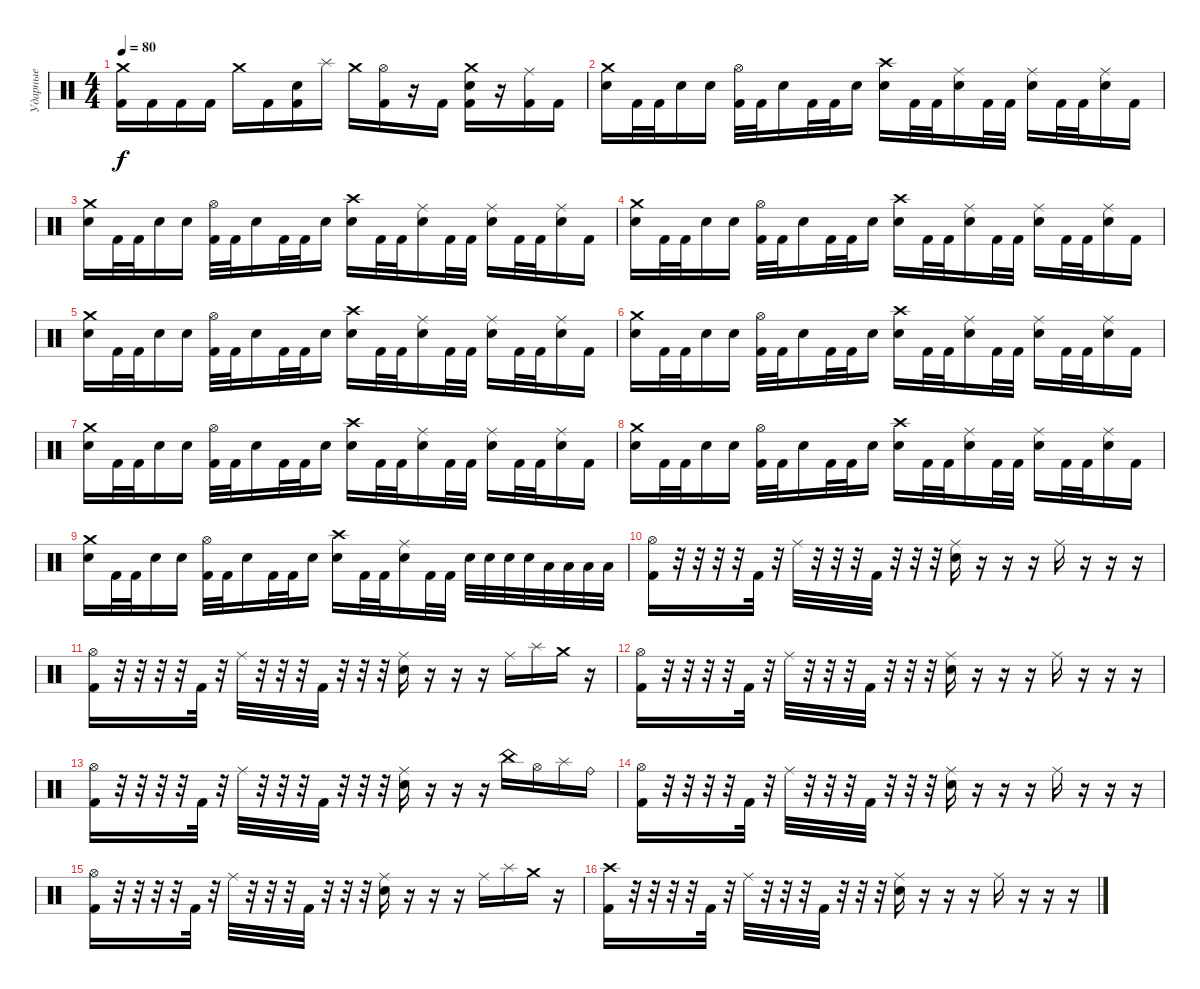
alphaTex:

\track ("Ударные" "Ударные") {instrument percussion}
\staff {score}
\articulation defaults
\ts (4 4)
\tempo 80
\clef neutral
\ks c
("Crash medium (hit)" "Kick (hit) 2").16{dy f} "Kick (hit) 2".16 "Kick (hit) 2".16 "Kick (hit) 2".16 "Crash medium (hit)".16 "Kick (hit) 2".16 ("Electric Snare (hit)" "Kick (hit) 2").16 "Splash (hit)".16 "Crash medium (hit)".16 ("Hi-Hat (open)" "Kick (hit) 2").16 r.16 "Kick (hit) 2".16 ("Crash medium (hit)" "Electric Snare (hit)" "Kick (hit) 2").16 r.16 ("Ride (middle)" "Kick (hit) 2").16 "Kick (hit) 2".16 |
("Crash medium (hit)" "Electric Snare (hit)").16 "Kick (hit) 2".32 "Kick (hit) 2".32 "Electric Snare (hit)".16 "Electric Snare (hit)".16 ("Hi-Hat (open)" "Kick (hit) 2").32 "Kick (hit) 2".32 "Electric Snare (hit)".16 "Kick (hit) 2".32 "Kick (hit) 2".32 "Electric Snare (hit)".16 ("Crash high (hit)" "Electric Snare (hit)").16 "Kick (hit) 2".32 "Kick (hit) 2".32 ("Ride (middle)" "Electric Snare (hit)").16 "Kick (hit) 2".32 "Kick (hit) 2".32 ("Ride (middle)" "Electric Snare (hit)").16 "Kick (hit) 2".32 "Kick (hit) 2".32 ("Ride (middle)" "Electric Snare (hit)").16 "Kick (hit) 2".16 |
("Crash medium (hit)" "Electric Snare (hit)").16 "Kick (hit) 2".32 "Kick (hit) 2".32 "Electric Snare (hit)".16 "Electric Snare (hit)".16 ("Hi-Hat (open)" "Kick (hit) 2").32 "Kick (hit) 2".32 "Electric Snare (hit)".16 "Kick (hit) 2".32 "Kick (hit) 2".32 "Electric Snare (hit)".16 ("Crash high (hit)" "Electric Snare (hit)").16 "Kick (hit) 2".32 "Kick (hit) 2".32 ("Ride (middle)" "Electric Snare (hit)").16 "Kick (hit) 2".32 "Kick (hit) 2".32 ("Ride (middle)" "Electric Snare (hit)").16 "Kick (hit) 2".32 "Kick (hit) 2".32 ("Ride (middle)" "Electric Snare (hit)").16 "Kick (hit) 2".16 |
("Crash medium (hit)" "Electric Snare (hit)").16 "Kick (hit) 2".32 "Kick (hit) 2".32 "Electric Snare (hit)".16 "Electric Snare (hit)".16 ("Hi-Hat (open)" "Kick (hit) 2").32 "Kick (hit) 2".32 "Electric Snare (hit)".16 "Kick (hit) 2".32 "Kick (hit) 2".32 "Electric Snare (hit)".16 ("Crash high (hit)" "Electric Snare (hit)").16 "Kick (hit) 2".32 "Kick (hit) 2".32 ("Ride (middle)" "Electric Snare (hit)").16 "Kick (hit) 2".32 "Kick (hit) 2".32 ("Ride (middle)" "Electric Snare (hit)").16 "Kick (hit) 2".32 "Kick (hit) 2".32 ("Ride (middle)" "Electric Snare (hit)").16 "Kick (hit) 2".16 |
("Crash medium (hit)" "Electric Snare (hit)").16 "Kick (hit) 2".32 "Kick (hit) 2".32 "Electric Snare (hit)".16 "Electric Snare (hit)".16 ("Hi-Hat (open)" "Kick (hit) 2").32 "Kick (hit) 2".32 "Electric Snare (hit)".16 "Kick (hit) 2".32 "Kick (hit) 2".32 "Electric Snare (hit)".16 ("Crash high (hit)" "Electric Snare (hit)").16 "Kick (hit) 2".32 "Kick (hit) 2".32 ("Ride (middle)" "Electric Snare (hit)").16 "Kick (hit) 2".32 "Kick (hit) 2".32 ("Ride (middle)" "Electric Snare (hit)").16 "Kick (hit) 2".32 "Kick (hit) 2".32 ("Ride (middle)" "Electric Snare (hit)").16 "Kick (hit) 2".16 |
("Crash medium (hit)" "Electric Snare (hit)").16 "Kick (hit) 2".32 "Kick (hit) 2".32 "Electric Snare (hit)".16 "Electric Snare (hit)".16 ("Hi-Hat (open)" "Kick (hit) 2").32 "Kick (hit) 2".32 "Electric Snare (hit)".16 "Kick (hit) 2".32 "Kick (hit) 2".32 "Electric Snare (hit)".16 ("Crash high (hit)" "Electric Snare (hit)").16 "Kick (hit) 2".32 "Kick (hit) 2".32 ("Ride (middle)" "Electric Snare (hit)").16 "Kick (hit) 2".32 "Kick (hit) 2".32 ("Ride (middle)" "Electric Snare (hit)").16 "Kick (hit) 2".32 "Kick (hit) 2".32 ("Ride (middle)" "Electric Snare (hit)").16 "Kick (hit) 2".16 |
("Crash medium (hit)" "Electric Snare (hit)").16 "Kick (hit) 2".32 "Kick (hit) 2".32 "Electric Snare (hit)".16 "Electric Snare (hit)".16 ("Hi-Hat (open)" "Kick (hit) 2").32 "Kick (hit) 2".32 "Electric Snare (hit)".16 "Kick (hit) 2".32 "Kick (hit) 2".32 "Electric Snare (hit)".16 ("Crash high (hit)" "Electric Snare (hit)").16 "Kick (hit) 2".32 "Kick (hit) 2".32 ("Ride (middle)" "Electric Snare (hit)").16 "Kick (hit) 2".32 "Kick (hit) 2".32 ("Ride (middle)" "Electric Snare (hit)").16 "Kick (hit) 2".32 "Kick (hit) 2".32 ("Ride (middle)" "Electric Snare (hit)").16 "Kick (hit) 2".16 |
("Crash medium (hit)" "Electric Snare (hit)").16 "Kick (hit) 2".32 "Kick (hit) 2".32 "Electric Snare (hit)".16 "Electric Snare (hit)".16 ("Hi-Hat (open)" "Kick (hit) 2").32 "Kick (hit) 2".32 "Electric Snare (hit)".16 "Kick (hit) 2".32 "Kick (hit) 2".32 "Electric Snare (hit)".16 ("Crash high (hit)" "Electric Snare (hit)").16 "Kick (hit) 2".32 "Kick (hit) 2".32 ("Ride (middle)" "Electric Snare (hit)").16 "Kick (hit) 2".32 "Kick (hit) 2".32 ("Ride (middle)" "Electric Snare (hit)").16 "Kick (hit) 2".32 "Kick (hit) 2".32 ("Ride (middle)" "Electric Snare (hit)").16 "Kick (hit) 2".16 |
("Crash medium (hit)" "Electric Snare (hit)").16 "Kick (hit) 2".32 "Kick (hit) 2".32 "Electric Snare (hit)".16 "Electric Snare (hit)".16 ("Hi-Hat (open)" "Kick (hit) 2").32 "Kick (hit) 2".32 "Electric Snare (hit)".16 "Kick (hit) 2".32 "Kick (hit) 2".32 "Electric Snare (hit)".16 ("Crash high (hit)" "Electric Snare (hit)").16 "Kick (hit) 2".32 "Kick (hit) 2".32 ("Ride (middle)" "Electric Snare (hit)").16 "Kick (hit) 2".32 "Kick (hit) 2".32 "Electric Snare (hit)".32 "Electric Snare (hit)".32 "Electric Snare (hit)".32 "Electric Snare (hit)".32 "Low Tom (hit)".32 "Low Tom (hit)".32 "Low Tom (hit)".32 "Low Tom (hit)".32 |
("Hi-Hat (open)" "Kick (hit) 2").16 r.32 r.32 r.32 r.32 "Kick (hit) 2".32 r.32 "Ride (middle)".32 r.32 r.32 r.32 "Kick (hit) 2".32 r.32 r.32 r.32 ("Ride (middle)" "Electric Snare (hit)").16 r.16 r.16 r.16 "Ride (middle)".16 r.16 r.16 r.16 |
("Hi-Hat (open)" "Kick (hit) 2").16 r.32 r.32 r.32 r.32 "Kick (hit) 2".32 r.32 "Ride (middle)".32 r.32 r.32 r.32 "Kick (hit) 2".32 r.32 r.32 r.32 ("Ride (middle)" "Electric Snare (hit)").16 r.16 r.16 r.16 "Ride (middle)".16 "Splash (hit)".16 "Crash medium (hit)".16 r.16 |
("Hi-Hat (open)" "Kick (hit) 2").16 r.32 r.32 r.32 r.32 "Kick (hit) 2".32 r.32 "Ride (middle)".32 r.32 r.32 r.32 "Kick (hit) 2".32 r.32 r.32 r.32 ("Ride (middle)" "Electric Snare (hit)").16 r.16 r.16 r.16 "Ride (middle)".16 r.16 r.16 r.16 |
("Hi-Hat (open)" "Kick (hit) 2").16 r.32 r.32 r.32 r.32 "Kick (hit) 2".32 r.32 "Ride (middle)".32 r.32 r.32 r.32 "Kick (hit) 2".32 r.32 r.32 r.32 ("Ride (middle)" "Electric Snare (hit)").16 r.16 r.16 r.16 "China (hit)".16 "Hi-Hat (open)".16 "Splash (hit)".16 "Ride (bell)".16 |
("Hi-Hat (open)" "Kick (hit) 2").16 r.32 r.32 r.32 r.32 "Kick (hit) 2".32 r.32 "Ride (middle)".32 r.32 r.32 r.32 "Kick (hit) 2".32 r.32 r.32 r.32 ("Ride (middle)" "Electric Snare (hit)").16 r.16 r.16 r.16 "Ride (middle)".16 r.16 r.16 r.16 |
("Hi-Hat (open)" "Kick (hit) 2").16 r.32 r.32 r.32 r.32 "Kick (hit) 2".32 r.32 "Ride (middle)".32 r.32 r.32 r.32 "Kick (hit) 2".32 r.32 r.32 r.32 ("Ride (middle)" "Electric Snare (hit)").16 r.16 r.16 r.16 "Ride (middle)".16 "Splash (hit)".16 "Crash medium (hit)".16 r.16 |
("Crash high (hit)" "Kick (hit) 2").16 r.32 r.32 r.32 r.32 "Kick (hit) 2".32 r.32 "Ride (middle)".32 r.32 r.32 r.32 "Kick (hit) 2".32 r.32 r.32 r.32 ("Ride (middle)" "Electric Snare (hit)").16 r.16 r.16 r.16 "Ride (middle)".16 r.16 r.16 r.16
